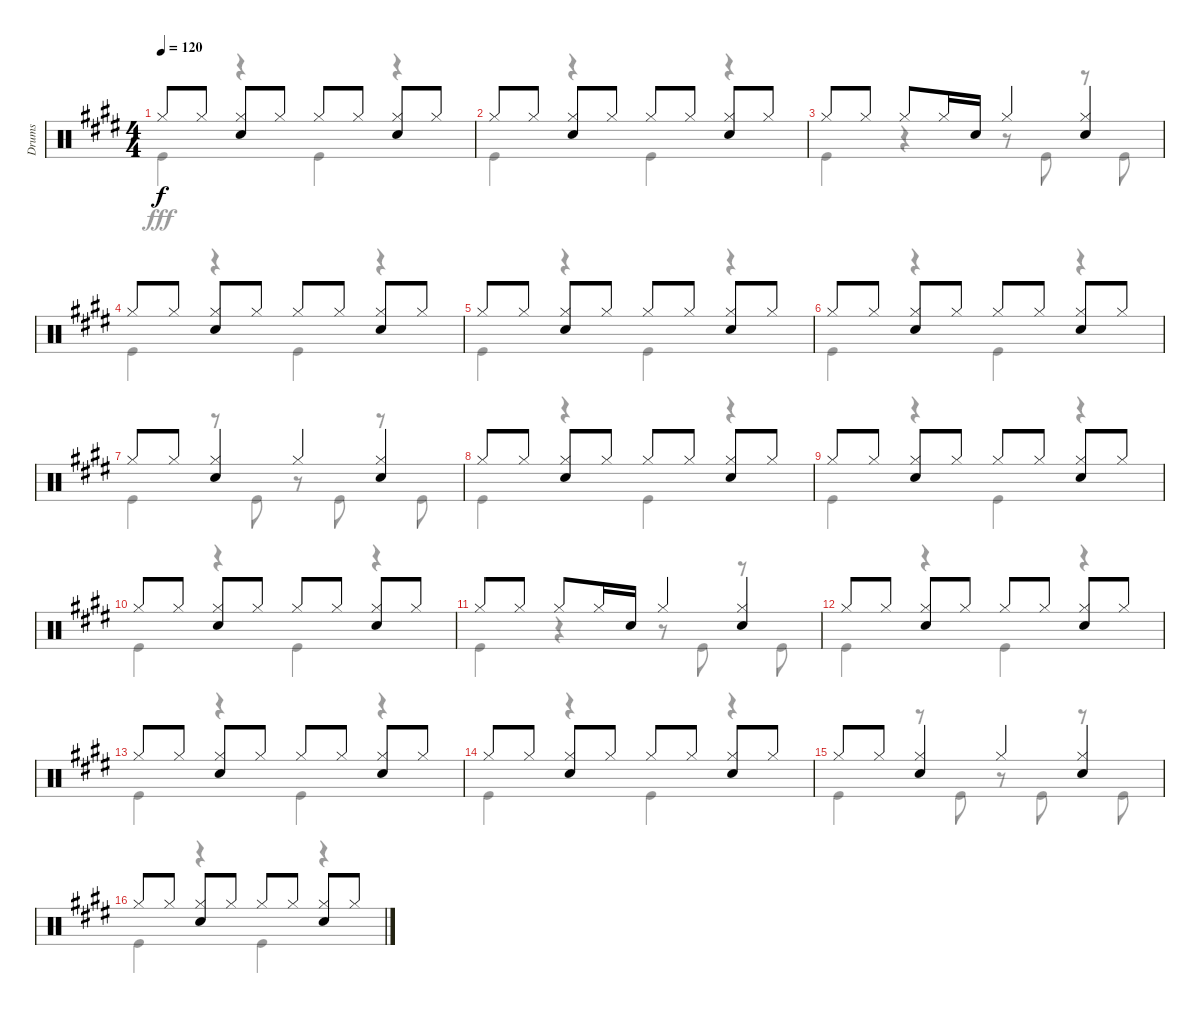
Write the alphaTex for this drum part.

\track ("Drums" "Drums") {instrument percussion}
\staff {score}
\articulation defaults
\voice
\ts (4 4)
\tempo 120
\clef neutral
\ks e "Hi-Hat (closed)".8{dy f} "Hi-Hat (closed)".8
("Hi-Hat (closed)" "Snare (hit) 2").8 "Hi-Hat (closed)".8 "Hi-Hat (closed)".8 "Hi-Hat (closed)".8 ("Hi-Hat (closed)" "Snare (hit) 2").8 "Hi-Hat (closed)".8 |
"Hi-Hat (closed)".8 "Hi-Hat (closed)".8 ("Hi-Hat (closed)" "Snare (hit) 2").8 "Hi-Hat (closed)".8 "Hi-Hat (closed)".8 "Hi-Hat (closed)".8 ("Hi-Hat (closed)" "Snare (hit) 2").8 "Hi-Hat (closed)".8 |
"Hi-Hat (closed)".8 "Hi-Hat (closed)".8 "Hi-Hat (closed)".8 "Hi-Hat (closed)".16 "Snare (hit) 2".16 "Hi-Hat (closed)".4 ("Hi-Hat (closed)" "Snare (hit) 2").4 |
"Hi-Hat (closed)".8 "Hi-Hat (closed)".8 ("Hi-Hat (closed)" "Snare (hit) 2").8 "Hi-Hat (closed)".8 "Hi-Hat (closed)".8 "Hi-Hat (closed)".8 ("Hi-Hat (closed)" "Snare (hit) 2").8 "Hi-Hat (closed)".8 |
"Hi-Hat (closed)".8 "Hi-Hat (closed)".8 ("Hi-Hat (closed)" "Snare (hit) 2").8 "Hi-Hat (closed)".8 "Hi-Hat (closed)".8 "Hi-Hat (closed)".8 ("Hi-Hat (closed)" "Snare (hit) 2").8 "Hi-Hat (closed)".8 |
"Hi-Hat (closed)".8 "Hi-Hat (closed)".8 ("Hi-Hat (closed)" "Snare (hit) 2").8 "Hi-Hat (closed)".8 "Hi-Hat (closed)".8 "Hi-Hat (closed)".8 ("Hi-Hat (closed)" "Snare (hit) 2").8 "Hi-Hat (closed)".8 |
"Hi-Hat (closed)".8 "Hi-Hat (closed)".8 ("Hi-Hat (closed)" "Snare (hit) 2").4 "Hi-Hat (closed)".4 ("Hi-Hat (closed)" "Snare (hit) 2").4 |
"Hi-Hat (closed)".8 "Hi-Hat (closed)".8 ("Hi-Hat (closed)" "Snare (hit) 2").8 "Hi-Hat (closed)".8 "Hi-Hat (closed)".8 "Hi-Hat (closed)".8 ("Hi-Hat (closed)" "Snare (hit) 2").8 "Hi-Hat (closed)".8 |
"Hi-Hat (closed)".8 "Hi-Hat (closed)".8 ("Hi-Hat (closed)" "Snare (hit) 2").8 "Hi-Hat (closed)".8 "Hi-Hat (closed)".8 "Hi-Hat (closed)".8 ("Hi-Hat (closed)" "Snare (hit) 2").8 "Hi-Hat (closed)".8 |
"Hi-Hat (closed)".8 "Hi-Hat (closed)".8 ("Hi-Hat (closed)" "Snare (hit) 2").8 "Hi-Hat (closed)".8 "Hi-Hat (closed)".8 "Hi-Hat (closed)".8 ("Hi-Hat (closed)" "Snare (hit) 2").8 "Hi-Hat (closed)".8 |
"Hi-Hat (closed)".8 "Hi-Hat (closed)".8 "Hi-Hat (closed)".8 "Hi-Hat (closed)".16 "Snare (hit) 2".16 "Hi-Hat (closed)".4 ("Hi-Hat (closed)" "Snare (hit) 2").4 |
"Hi-Hat (closed)".8 "Hi-Hat (closed)".8 ("Hi-Hat (closed)" "Snare (hit) 2").8 "Hi-Hat (closed)".8 "Hi-Hat (closed)".8 "Hi-Hat (closed)".8 ("Hi-Hat (closed)" "Snare (hit) 2").8 "Hi-Hat (closed)".8 |
"Hi-Hat (closed)".8 "Hi-Hat (closed)".8 ("Hi-Hat (closed)" "Snare (hit) 2").8 "Hi-Hat (closed)".8 "Hi-Hat (closed)".8 "Hi-Hat (closed)".8 ("Hi-Hat (closed)" "Snare (hit) 2").8 "Hi-Hat (closed)".8 |
"Hi-Hat (closed)".8 "Hi-Hat (closed)".8 ("Hi-Hat (closed)" "Snare (hit) 2").8 "Hi-Hat (closed)".8 "Hi-Hat (closed)".8 "Hi-Hat (closed)".8 ("Hi-Hat (closed)" "Snare (hit) 2").8 "Hi-Hat (closed)".8 |
"Hi-Hat (closed)".8 "Hi-Hat (closed)".8 ("Hi-Hat (closed)" "Snare (hit) 2").4 "Hi-Hat (closed)".4 ("Hi-Hat (closed)" "Snare (hit) 2").4 |
"Hi-Hat (closed)".8 "Hi-Hat (closed)".8 ("Hi-Hat (closed)" "Snare (hit) 2").8 "Hi-Hat (closed)".8 "Hi-Hat (closed)".8 "Hi-Hat (closed)".8 ("Hi-Hat (closed)" "Snare (hit) 2").8 "Hi-Hat (closed)".8
\voice
\clef neutral
\ottava regular
\simile none
\ks e "Kick (hit)".4{dy fff}
r.4 "Kick (hit)".4 r.4 |
"Kick (hit)".4 r.4 "Kick (hit)".4 r.4 |
"Kick (hit)".4 r.4 r.8 "Kick (hit)".8 r.8 "Kick (hit)".8 |
"Kick (hit)".4 r.4 "Kick (hit)".4 r.4 |
"Kick (hit)".4 r.4 "Kick (hit)".4 r.4 |
"Kick (hit)".4 r.4 "Kick (hit)".4 r.4 |
"Kick (hit)".4 r.8 "Kick (hit)".8 r.8 "Kick (hit)".8 r.8 "Kick (hit)".8 |
"Kick (hit)".4 r.4 "Kick (hit)".4 r.4 |
"Kick (hit)".4 r.4 "Kick (hit)".4 r.4 |
"Kick (hit)".4 r.4 "Kick (hit)".4 r.4 |
"Kick (hit)".4 r.4 r.8 "Kick (hit)".8 r.8 "Kick (hit)".8 |
"Kick (hit)".4 r.4 "Kick (hit)".4 r.4 |
"Kick (hit)".4 r.4 "Kick (hit)".4 r.4 |
"Kick (hit)".4 r.4 "Kick (hit)".4 r.4 |
"Kick (hit)".4 r.8 "Kick (hit)".8 r.8 "Kick (hit)".8 r.8 "Kick (hit)".8 |
"Kick (hit)".4 r.4 "Kick (hit)".4 r.4
